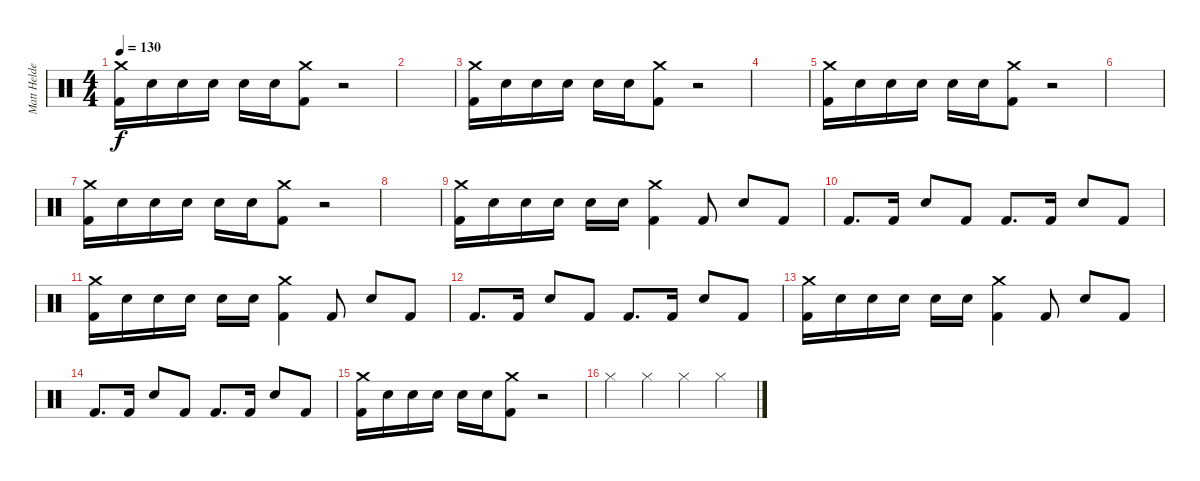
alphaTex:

\track ("Matt Helders" "Matt Helde") {instrument percussion}
\staff {score}
\articulation defaults
\ts (4 4)
\tempo 130
\clef neutral
\ks c
("Kick (hit) 2" "Crash medium (hit)").16{dy f} "Snare (hit) 2".16 "Snare (hit) 2".16 "Snare (hit) 2".16 "Snare (hit) 2".16 "Snare (hit) 2".16 ("Kick (hit) 2" "Crash medium (hit)").8 r.2 |
|
("Kick (hit) 2" "Crash medium (hit)").16 "Snare (hit) 2".16 "Snare (hit) 2".16 "Snare (hit) 2".16 "Snare (hit) 2".16 "Snare (hit) 2".16 ("Kick (hit) 2" "Crash medium (hit)").8 r.2 |
|
("Kick (hit) 2" "Crash medium (hit)").16 "Snare (hit) 2".16 "Snare (hit) 2".16 "Snare (hit) 2".16 "Snare (hit) 2".16 "Snare (hit) 2".16 ("Kick (hit) 2" "Crash medium (hit)").8 r.2 |
|
("Kick (hit) 2" "Crash medium (hit)").16 "Snare (hit) 2".16 "Snare (hit) 2".16 "Snare (hit) 2".16 "Snare (hit) 2".16 "Snare (hit) 2".16 ("Kick (hit) 2" "Crash medium (hit)").8 r.2 |
|
("Kick (hit) 2" "Crash medium (hit)").16 "Snare (hit) 2".16 "Snare (hit) 2".16 "Snare (hit) 2".16 "Snare (hit) 2".16 "Snare (hit) 2".16 ("Kick (hit) 2" "Crash medium (hit)").4 "Kick (hit) 2".8 "Snare (hit) 2".8 "Kick (hit) 2".8 |
"Kick (hit) 2".8{d} "Kick (hit) 2".16 "Snare (hit) 2".8 "Kick (hit) 2".8 "Kick (hit) 2".8{d} "Kick (hit) 2".16 "Snare (hit) 2".8 "Kick (hit) 2".8 |
("Kick (hit) 2" "Crash medium (hit)").16 "Snare (hit) 2".16 "Snare (hit) 2".16 "Snare (hit) 2".16 "Snare (hit) 2".16 "Snare (hit) 2".16 ("Kick (hit) 2" "Crash medium (hit)").4 "Kick (hit) 2".8 "Snare (hit) 2".8 "Kick (hit) 2".8 |
"Kick (hit) 2".8{d} "Kick (hit) 2".16 "Snare (hit) 2".8 "Kick (hit) 2".8 "Kick (hit) 2".8{d} "Kick (hit) 2".16 "Snare (hit) 2".8 "Kick (hit) 2".8 |
("Kick (hit) 2" "Crash medium (hit)").16 "Snare (hit) 2".16 "Snare (hit) 2".16 "Snare (hit) 2".16 "Snare (hit) 2".16 "Snare (hit) 2".16 ("Kick (hit) 2" "Crash medium (hit)").4 "Kick (hit) 2".8 "Snare (hit) 2".8 "Kick (hit) 2".8 |
"Kick (hit) 2".8{d} "Kick (hit) 2".16 "Snare (hit) 2".8 "Kick (hit) 2".8 "Kick (hit) 2".8{d} "Kick (hit) 2".16 "Snare (hit) 2".8 "Kick (hit) 2".8 |
("Kick (hit) 2" "Crash medium (hit)").16 "Snare (hit) 2".16 "Snare (hit) 2".16 "Snare (hit) 2".16 "Snare (hit) 2".16 "Snare (hit) 2".16 ("Kick (hit) 2" "Crash medium (hit)").8 r.2 |
"Hi-Hat (closed)".4 "Hi-Hat (closed)".4 "Hi-Hat (closed)".4 "Hi-Hat (closed)".4
